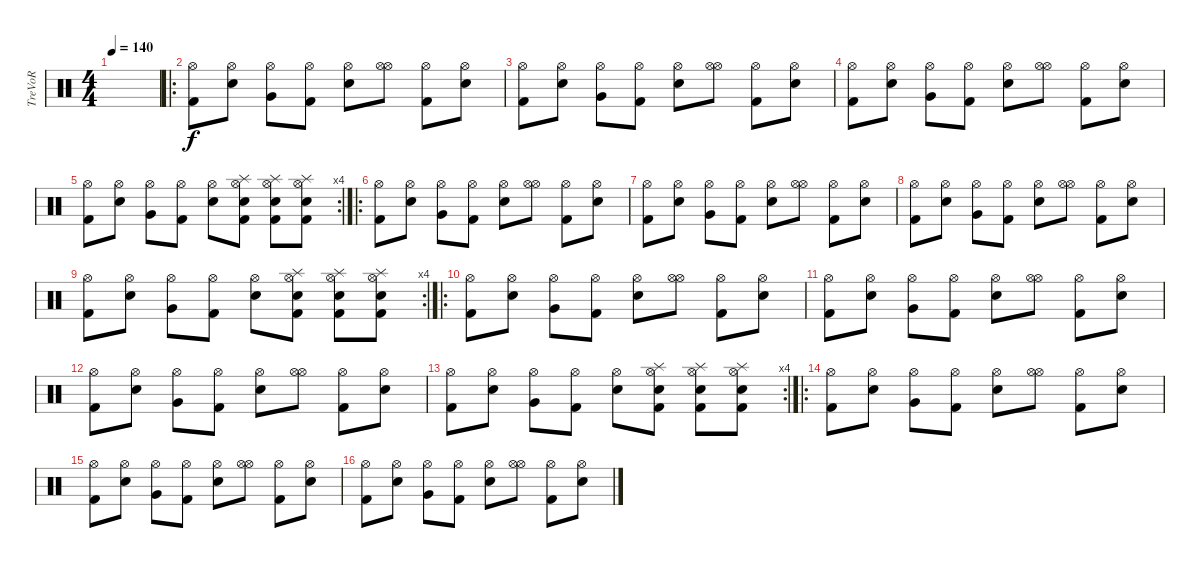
\track ("TreVoR" "TreVoR") {instrument percussion}
\staff {score}
\articulation defaults
\ts (4 4)
\tempo 140
\clef neutral
\ks c
|
\ro
("Hi-Hat (open)" "Kick (hit) 2").8 ("Hi-Hat (open)" "Snare (hit) 2").8 ("Hi-Hat (open)" "Very Low Tom (hit)").8 ("Hi-Hat (open)" "Kick (hit) 2").8 ("Hi-Hat (open)" "Snare (hit) 2").8 ("Hi-Hat (open)" "Hi-Hat (open)").8 ("Hi-Hat (open)" "Kick (hit) 2").8 ("Hi-Hat (open)" "Snare (hit) 2").8 |
("Hi-Hat (open)" "Kick (hit) 2").8 ("Hi-Hat (open)" "Snare (hit) 2").8 ("Hi-Hat (open)" "Very Low Tom (hit)").8 ("Hi-Hat (open)" "Kick (hit) 2").8 ("Hi-Hat (open)" "Snare (hit) 2").8 ("Hi-Hat (open)" "Hi-Hat (open)").8 ("Hi-Hat (open)" "Kick (hit) 2").8 ("Hi-Hat (open)" "Snare (hit) 2").8 |
("Hi-Hat (open)" "Kick (hit) 2").8 ("Hi-Hat (open)" "Snare (hit) 2").8 ("Hi-Hat (open)" "Very Low Tom (hit)").8 ("Hi-Hat (open)" "Kick (hit) 2").8 ("Hi-Hat (open)" "Snare (hit) 2").8 ("Hi-Hat (open)" "Hi-Hat (open)").8 ("Hi-Hat (open)" "Kick (hit) 2").8 ("Hi-Hat (open)" "Snare (hit) 2").8 |
\rc 4
("Hi-Hat (open)" "Kick (hit) 2").8 ("Hi-Hat (open)" "Snare (hit) 2").8 ("Hi-Hat (open)" "Very Low Tom (hit)").8 ("Hi-Hat (open)" "Kick (hit) 2").8 ("Hi-Hat (open)" "Snare (hit) 2").8 ("Hi-Hat (open)" "Splash (hit)" "Kick (hit) 2" "Electric Snare (hit)").8 ("Hi-Hat (open)" "Splash (hit)" "Kick (hit) 2" "Electric Snare (hit)").8 ("Hi-Hat (open)" "Splash (hit)" "Kick (hit) 2" "Electric Snare (hit)").8 |
\ro
("Hi-Hat (open)" "Kick (hit) 2").8 ("Hi-Hat (open)" "Snare (hit) 2").8 ("Hi-Hat (open)" "Very Low Tom (hit)").8 ("Hi-Hat (open)" "Kick (hit) 2").8 ("Hi-Hat (open)" "Snare (hit) 2").8 ("Hi-Hat (open)" "Hi-Hat (open)").8 ("Hi-Hat (open)" "Kick (hit) 2").8 ("Hi-Hat (open)" "Snare (hit) 2").8 |
("Hi-Hat (open)" "Kick (hit) 2").8 ("Hi-Hat (open)" "Snare (hit) 2").8 ("Hi-Hat (open)" "Very Low Tom (hit)").8 ("Hi-Hat (open)" "Kick (hit) 2").8 ("Hi-Hat (open)" "Snare (hit) 2").8 ("Hi-Hat (open)" "Hi-Hat (open)").8 ("Hi-Hat (open)" "Kick (hit) 2").8 ("Hi-Hat (open)" "Snare (hit) 2").8 |
("Hi-Hat (open)" "Kick (hit) 2").8 ("Hi-Hat (open)" "Snare (hit) 2").8 ("Hi-Hat (open)" "Very Low Tom (hit)").8 ("Hi-Hat (open)" "Kick (hit) 2").8 ("Hi-Hat (open)" "Snare (hit) 2").8 ("Hi-Hat (open)" "Hi-Hat (open)").8 ("Hi-Hat (open)" "Kick (hit) 2").8 ("Hi-Hat (open)" "Snare (hit) 2").8 |
\rc 4
("Hi-Hat (open)" "Kick (hit) 2").8 ("Hi-Hat (open)" "Snare (hit) 2").8 ("Hi-Hat (open)" "Very Low Tom (hit)").8 ("Hi-Hat (open)" "Kick (hit) 2").8 ("Hi-Hat (open)" "Snare (hit) 2").8 ("Hi-Hat (open)" "Splash (hit)" "Kick (hit) 2" "Electric Snare (hit)").8 ("Hi-Hat (open)" "Splash (hit)" "Kick (hit) 2" "Electric Snare (hit)").8 ("Hi-Hat (open)" "Splash (hit)" "Kick (hit) 2" "Electric Snare (hit)").8 |
\ro
("Hi-Hat (open)" "Kick (hit) 2").8 ("Hi-Hat (open)" "Snare (hit) 2").8 ("Hi-Hat (open)" "Very Low Tom (hit)").8 ("Hi-Hat (open)" "Kick (hit) 2").8 ("Hi-Hat (open)" "Snare (hit) 2").8 ("Hi-Hat (open)" "Hi-Hat (open)").8 ("Hi-Hat (open)" "Kick (hit) 2").8 ("Hi-Hat (open)" "Snare (hit) 2").8 |
("Hi-Hat (open)" "Kick (hit) 2").8 ("Hi-Hat (open)" "Snare (hit) 2").8 ("Hi-Hat (open)" "Very Low Tom (hit)").8 ("Hi-Hat (open)" "Kick (hit) 2").8 ("Hi-Hat (open)" "Snare (hit) 2").8 ("Hi-Hat (open)" "Hi-Hat (open)").8 ("Hi-Hat (open)" "Kick (hit) 2").8 ("Hi-Hat (open)" "Snare (hit) 2").8 |
("Hi-Hat (open)" "Kick (hit) 2").8 ("Hi-Hat (open)" "Snare (hit) 2").8 ("Hi-Hat (open)" "Very Low Tom (hit)").8 ("Hi-Hat (open)" "Kick (hit) 2").8 ("Hi-Hat (open)" "Snare (hit) 2").8 ("Hi-Hat (open)" "Hi-Hat (open)").8 ("Hi-Hat (open)" "Kick (hit) 2").8 ("Hi-Hat (open)" "Snare (hit) 2").8 |
\rc 4
("Hi-Hat (open)" "Kick (hit) 2").8 ("Hi-Hat (open)" "Snare (hit) 2").8 ("Hi-Hat (open)" "Very Low Tom (hit)").8 ("Hi-Hat (open)" "Kick (hit) 2").8 ("Hi-Hat (open)" "Snare (hit) 2").8 ("Hi-Hat (open)" "Splash (hit)" "Kick (hit) 2" "Electric Snare (hit)").8 ("Hi-Hat (open)" "Splash (hit)" "Kick (hit) 2" "Electric Snare (hit)").8 ("Hi-Hat (open)" "Splash (hit)" "Kick (hit) 2" "Electric Snare (hit)").8 |
\ro
("Hi-Hat (open)" "Kick (hit) 2").8 ("Hi-Hat (open)" "Snare (hit) 2").8 ("Hi-Hat (open)" "Very Low Tom (hit)").8 ("Hi-Hat (open)" "Kick (hit) 2").8 ("Hi-Hat (open)" "Snare (hit) 2").8 ("Hi-Hat (open)" "Hi-Hat (open)").8 ("Hi-Hat (open)" "Kick (hit) 2").8 ("Hi-Hat (open)" "Snare (hit) 2").8 |
("Hi-Hat (open)" "Kick (hit) 2").8 ("Hi-Hat (open)" "Snare (hit) 2").8 ("Hi-Hat (open)" "Very Low Tom (hit)").8 ("Hi-Hat (open)" "Kick (hit) 2").8 ("Hi-Hat (open)" "Snare (hit) 2").8 ("Hi-Hat (open)" "Hi-Hat (open)").8 ("Hi-Hat (open)" "Kick (hit) 2").8 ("Hi-Hat (open)" "Snare (hit) 2").8 |
("Hi-Hat (open)" "Kick (hit) 2").8 ("Hi-Hat (open)" "Snare (hit) 2").8 ("Hi-Hat (open)" "Very Low Tom (hit)").8 ("Hi-Hat (open)" "Kick (hit) 2").8 ("Hi-Hat (open)" "Snare (hit) 2").8 ("Hi-Hat (open)" "Hi-Hat (open)").8 ("Hi-Hat (open)" "Kick (hit) 2").8 ("Hi-Hat (open)" "Snare (hit) 2").8
